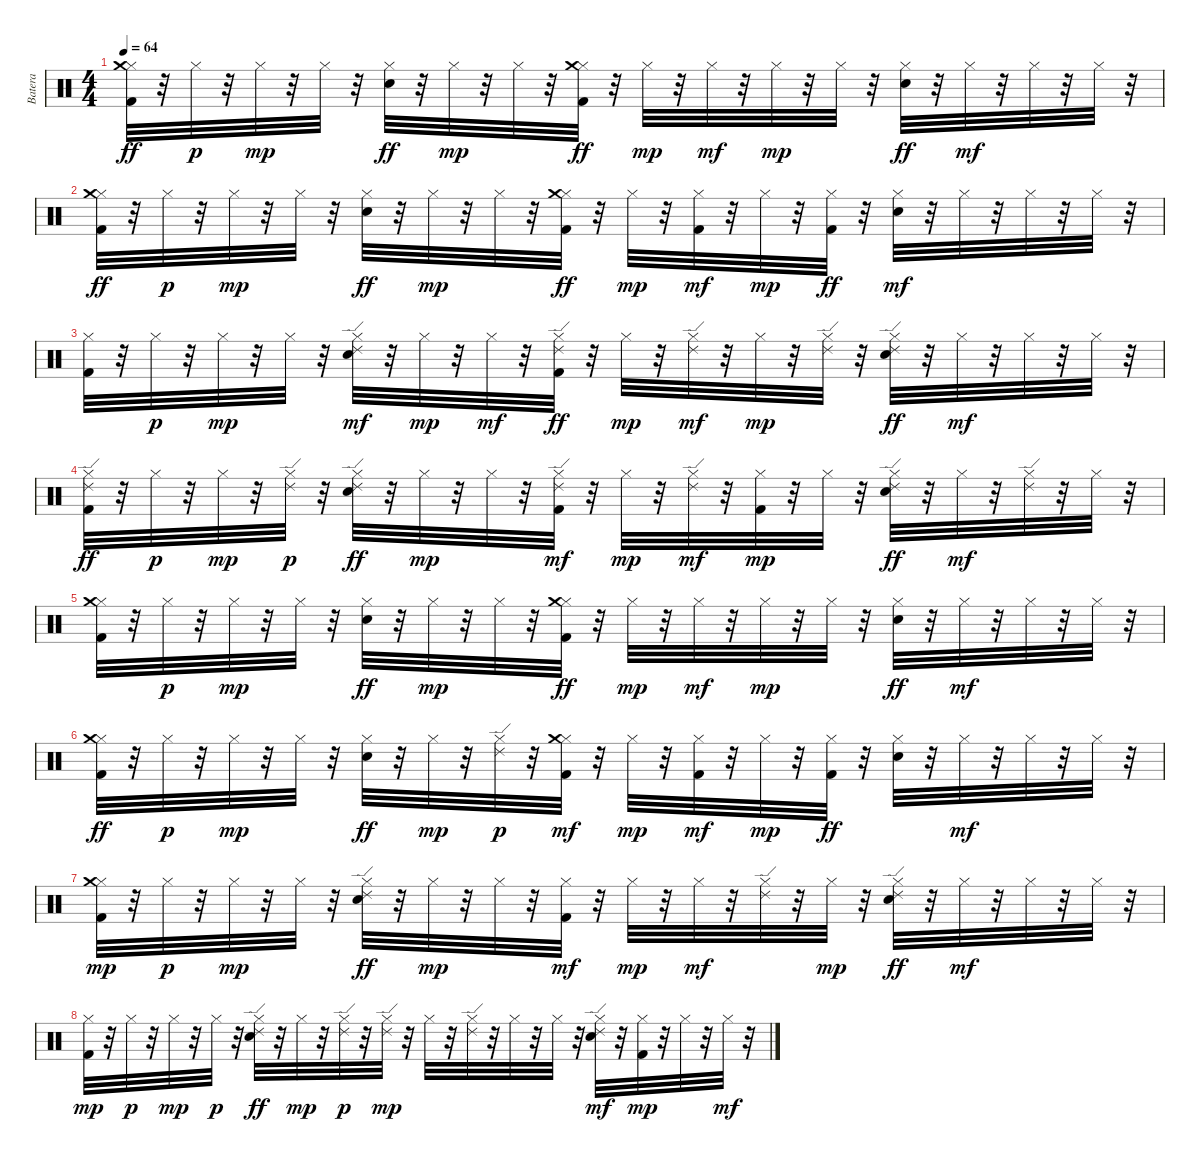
\track ("Batera" "Batera") {instrument percussion}
\staff {score}
\articulation defaults
\ts (4 4)
\tempo 64
\clef neutral
\ks c
("Hi-Hat (closed)" "Kick (hit) 2" "Crash medium (hit)").32{dy ff} r.32 "Hi-Hat (closed)".32{dy p} r.32 "Hi-Hat (closed)".32{dy mp} r.32 "Hi-Hat (closed)".32 r.32 ("Hi-Hat (closed)" "Snare (hit) 2").32{dy ff} r.32 "Hi-Hat (closed)".32{dy mp} r.32 "Hi-Hat (closed)".32 r.32 ("Hi-Hat (closed)" "Crash medium (hit)" "Kick (hit) 2").32{dy ff} r.32 "Hi-Hat (closed)".32{dy mp} r.32 "Hi-Hat (closed)".32{dy mf} r.32 "Hi-Hat (closed)".32{dy mp} r.32 "Hi-Hat (closed)".32 r.32 ("Hi-Hat (closed)" "Snare (hit) 2").32{dy ff} r.32 "Hi-Hat (closed)".32{dy mf} r.32 "Hi-Hat (closed)".32 r.32 "Hi-Hat (closed)".32 r.32 |
("Hi-Hat (closed)" "Kick (hit) 2" "Crash medium (hit)").32{dy ff} r.32 "Hi-Hat (closed)".32{dy p} r.32 "Hi-Hat (closed)".32{dy mp} r.32 "Hi-Hat (closed)".32 r.32 ("Hi-Hat (closed)" "Snare (hit) 2").32{dy ff} r.32 "Hi-Hat (closed)".32{dy mp} r.32 "Hi-Hat (closed)".32 r.32 ("Hi-Hat (closed)" "Kick (hit) 2" "Crash medium (hit)").32{dy ff} r.32 "Hi-Hat (closed)".32{dy mp} r.32 ("Hi-Hat (closed)" "Kick (hit) 2").32{dy mf} r.32 "Hi-Hat (closed)".32{dy mp} r.32 ("Hi-Hat (closed)" "Kick (hit) 2").32{dy ff} r.32 ("Hi-Hat (closed)" "Snare (hit) 2").32{dy mf} r.32 "Hi-Hat (closed)".32 r.32 "Hi-Hat (closed)".32 r.32 "Hi-Hat (closed)".32 r.32 |
("Hi-Hat (closed)" "Kick (hit) 2").32 r.32 "Hi-Hat (closed)".32{dy p} r.32 "Hi-Hat (closed)".32{dy mp} r.32 "Hi-Hat (closed)".32 r.32 ("Hi-Hat (closed)" "Snare (hit) 2" "Ride (edge) 2").32{dy mf} r.32 "Hi-Hat (closed)".32{dy mp} r.32 "Hi-Hat (closed)".32{dy mf} r.32 ("Hi-Hat (closed)" "Kick (hit) 2" "Ride (edge) 2").32{dy ff} r.32 "Hi-Hat (closed)".32{dy mp} r.32 ("Hi-Hat (closed)" "Ride (edge) 2").32{dy mf} r.32 "Hi-Hat (closed)".32{dy mp} r.32 ("Hi-Hat (closed)" "Ride (edge) 2").32 r.32 ("Hi-Hat (closed)" "Snare (hit) 2" "Ride (edge) 2").32{dy ff} r.32 "Hi-Hat (closed)".32{dy mf} r.32 "Hi-Hat (closed)".32 r.32 "Hi-Hat (closed)".32 r.32 |
("Hi-Hat (closed)" "Kick (hit) 2" "Ride (edge) 2").32{dy ff} r.32 "Hi-Hat (closed)".32{dy p} r.32 "Hi-Hat (closed)".32{dy mp} r.32 ("Hi-Hat (closed)" "Ride (edge) 2").32{dy p} r.32 ("Hi-Hat (closed)" "Snare (hit) 2" "Ride (edge) 2").32{dy ff} r.32 "Hi-Hat (closed)".32{dy mp} r.32 "Hi-Hat (closed)".32 r.32 ("Hi-Hat (closed)" "Kick (hit) 2" "Ride (edge) 2").32{dy mf} r.32 "Hi-Hat (closed)".32{dy mp} r.32 ("Hi-Hat (closed)" "Ride (edge) 2").32{dy mf} r.32 ("Hi-Hat (closed)" "Kick (hit) 2").32{dy mp} r.32 "Hi-Hat (closed)".32 r.32 ("Hi-Hat (closed)" "Snare (hit) 2" "Ride (edge) 2").32{dy ff} r.32 "Hi-Hat (closed)".32{dy mf} r.32 ("Hi-Hat (closed)" "Ride (edge) 2").32 r.32 "Hi-Hat (closed)".32 r.32 |
("Hi-Hat (closed)" "Kick (hit) 2" "Crash medium (hit)").32 r.32 "Hi-Hat (closed)".32{dy p} r.32 "Hi-Hat (closed)".32{dy mp} r.32 "Hi-Hat (closed)".32 r.32 ("Hi-Hat (closed)" "Snare (hit) 2").32{dy ff} r.32 "Hi-Hat (closed)".32{dy mp} r.32 "Hi-Hat (closed)".32 r.32 ("Hi-Hat (closed)" "Crash medium (hit)" "Kick (hit) 2").32{dy ff} r.32 "Hi-Hat (closed)".32{dy mp} r.32 "Hi-Hat (closed)".32{dy mf} r.32 "Hi-Hat (closed)".32{dy mp} r.32 "Hi-Hat (closed)".32 r.32 ("Hi-Hat (closed)" "Snare (hit) 2").32{dy ff} r.32 "Hi-Hat (closed)".32{dy mf} r.32 "Hi-Hat (closed)".32 r.32 "Hi-Hat (closed)".32 r.32 |
("Hi-Hat (closed)" "Kick (hit) 2" "Crash medium (hit)").32{dy ff} r.32 "Hi-Hat (closed)".32{dy p} r.32 "Hi-Hat (closed)".32{dy mp} r.32 "Hi-Hat (closed)".32 r.32 ("Hi-Hat (closed)" "Snare (hit) 2").32{dy ff} r.32 "Hi-Hat (closed)".32{dy mp} r.32 ("Hi-Hat (closed)" "Ride (edge) 2").32{dy p} r.32 ("Hi-Hat (closed)" "Kick (hit) 2" "Crash medium (hit)").32{dy mf} r.32 "Hi-Hat (closed)".32{dy mp} r.32 ("Hi-Hat (closed)" "Kick (hit) 2").32{dy mf} r.32 "Hi-Hat (closed)".32{dy mp} r.32 ("Hi-Hat (closed)" "Kick (hit) 2").32{dy ff} r.32 ("Hi-Hat (closed)" "Snare (hit) 2").32 r.32 "Hi-Hat (closed)".32{dy mf} r.32 "Hi-Hat (closed)".32 r.32 "Hi-Hat (closed)".32 r.32 |
("Hi-Hat (closed)" "Kick (hit) 2" "Crash medium (hit)").32{dy mp} r.32 "Hi-Hat (closed)".32{dy p} r.32 "Hi-Hat (closed)".32{dy mp} r.32 "Hi-Hat (closed)".32 r.32 ("Hi-Hat (closed)" "Ride (edge) 2" "Snare (hit) 2").32{dy ff} r.32 "Hi-Hat (closed)".32{dy mp} r.32 "Hi-Hat (closed)".32 r.32 ("Hi-Hat (closed)" "Kick (hit) 2").32{dy mf} r.32 "Hi-Hat (closed)".32{dy mp} r.32 "Hi-Hat (closed)".32{dy mf} r.32 ("Hi-Hat (closed)" "Ride (edge) 2").32 r.32 "Hi-Hat (closed)".32{dy mp} r.32 ("Hi-Hat (closed)" "Snare (hit) 2" "Ride (edge) 2").32{dy ff} r.32 "Hi-Hat (closed)".32{dy mf} r.32 "Hi-Hat (closed)".32 r.32 "Hi-Hat (closed)".32 r.32 |
("Hi-Hat (closed)" "Kick (hit) 2").32{dy mp} r.32 "Hi-Hat (closed)".32{dy p} r.32 "Hi-Hat (closed)".32{dy mp} r.32 "Hi-Hat (closed)".32{dy p} r.32 ("Hi-Hat (closed)" "Snare (hit) 2" "Ride (edge) 2").32{dy ff} r.32 "Hi-Hat (closed)".32{dy mp} r.32 ("Hi-Hat (closed)" "Ride (edge) 2").32{dy p} r.32 ("Hi-Hat (closed)" "Ride (edge) 2").32{dy mp} r.32 "Hi-Hat (closed)".32 r.32 ("Hi-Hat (closed)" "Ride (edge) 2").32 r.32 "Hi-Hat (closed)".32 r.32 "Hi-Hat (closed)".32 r.32 ("Hi-Hat (closed)" "Snare (hit) 2" "Ride (edge) 2").32{dy mf} r.32 ("Hi-Hat (closed)" "Kick (hit) 2").32{dy mp} r.32 "Hi-Hat (closed)".32 r.32 "Hi-Hat (closed)".32{dy mf} r.32
